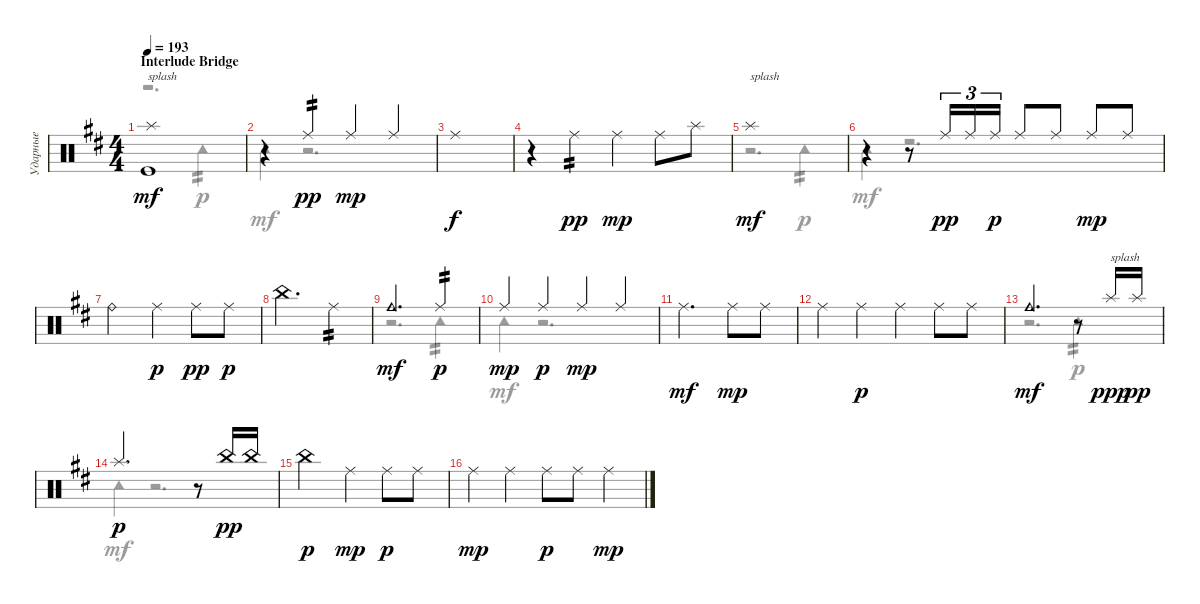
\track ("Ударные" "Ударные") {instrument percussion}
\staff {score}
\articulation defaults
\voice
\ts (4 4)
\section ("" "Interlude Bridge")
\tempo 193
\clef neutral
\ks bminor
("Kick (hit)" "Splash (hit)").1{txt "splash" dy mf} |
r.4 "Ride (middle)".4{tp 2 dy pp} "Ride (middle)".4{dy mp} "Ride (middle)".4 |
"Ride (middle)".1{dy f} |
r.4 "Ride (middle)".4{tp 2 dy pp} "Ride (middle)".4{dy mp} "Ride (middle)".8 "Splash (hit)".8 |
"Splash (hit)".1{txt "splash" dy mf} |
r.4 r.8 "Ride (middle)".16{tu (3 2) dy pp} "Ride (middle)".16{tu (3 2)} "Ride (middle)".16{tu (3 2) dy p} "Ride (middle)".8 "Ride (middle)".8 "Ride (middle)".8{dy mp} "Ride (middle)".8 |
"Ride (bell)".2 "Ride (middle)".4{dy p} "Ride (middle)".8{dy pp} "Ride (middle)".8{dy p} |
"China (hit)".2{d} "Ride (middle)".4{tp 2} |
"Cowbell medium (hit)".2{d dy mf} "Ride (middle)".4{tp 2 dy p} |
"Ride (middle)".4{dy mp} "Ride (middle)".4{dy p} "Ride (middle)".4{dy mp} "Ride (middle)".4 |
"Ride (middle)".2{d dy mf} "Ride (middle)".8{dy mp} "Ride (middle)".8 |
"Ride (middle)".4 "Ride (middle)".4{dy p} "Ride (middle)".4 "Ride (middle)".8 "Ride (middle)".8 |
"Cowbell medium (hit)".2{d dy mf} r.8 "Splash (hit)".16{txt "splash" dy ppp} "Splash (hit)".16{dy pp} |
"Splash (hit)".2{d dy p} r.8 "China (hit)".16{dy pp} "China (hit)".16 |
"China (hit)".2{dy p} "Ride (middle)".4{dy mp} "Ride (middle)".8{dy p} "Ride (middle)".8 |
"Ride (middle)".4{dy mp} "Ride (middle)".4 "Ride (middle)".8{dy p} "Ride (middle)".8 "Ride (middle)".4{dy mp}
\voice
\clef neutral
\ottava regular
\simile none
\ks bminor
r.2{d dy p} "Tambourine (hit)".4{tp 2} |
"Tambourine (hit)".4{dy mf} r.2{d} |
|
|
r.2{d} "Tambourine (hit)".4{tp 2 dy p} |
"Tambourine (hit)".4{dy mf} r.2{d} |
|
|
r.2{d} "Tambourine (hit)".4{tp 2 dy p} |
"Tambourine (hit)".4{dy mf} r.2{d} |
|
|
r.2{d} "Tambourine (hit)".4{tp 2 dy p} |
"Tambourine (hit)".4{dy mf} r.2{d} |
|
